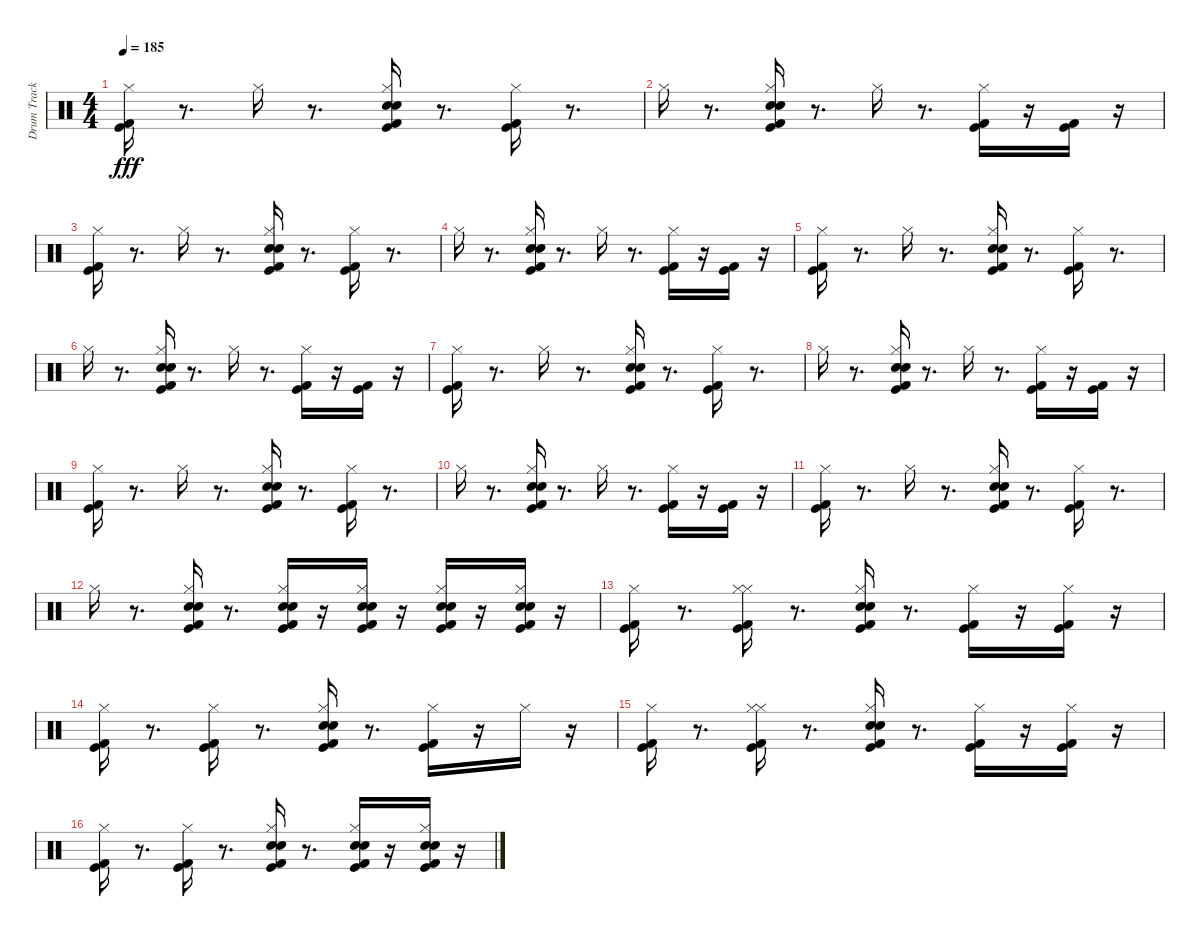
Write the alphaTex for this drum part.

\track ("Drum Track" "Drum Track") {instrument percussion}
\staff {score}
\articulation defaults
\ts (4 4)
\tempo 185
\clef neutral
\ks c
("Kick (hit)" "Kick (hit) 2" "Hi-Hat (closed)").16{dy fff} r.8{d} "Hi-Hat (closed)".16 r.8{d} ("Snare (hit) 2" "Electric Snare (hit)" "Kick (hit) 2" "Kick (hit)" "Hi-Hat (closed)").16 r.8{d} ("Kick (hit)" "Kick (hit) 2" "Hi-Hat (closed)").16 r.8{d} |
"Hi-Hat (closed)".16 r.8{d} ("Hi-Hat (closed)" "Kick (hit)" "Kick (hit) 2" "Electric Snare (hit)" "Snare (hit) 2").16 r.8{d} "Hi-Hat (closed)".16 r.8{d} ("Hi-Hat (closed)" "Kick (hit)" "Kick (hit) 2").16 r.16 ("Kick (hit) 2" "Kick (hit)").16 r.16 |
("Kick (hit)" "Kick (hit) 2" "Hi-Hat (closed)").16 r.8{d} "Hi-Hat (closed)".16 r.8{d} ("Snare (hit) 2" "Electric Snare (hit)" "Kick (hit) 2" "Kick (hit)" "Hi-Hat (closed)").16 r.8{d} ("Kick (hit)" "Kick (hit) 2" "Hi-Hat (closed)").16 r.8{d} |
"Hi-Hat (closed)".16 r.8{d} ("Hi-Hat (closed)" "Kick (hit)" "Kick (hit) 2" "Electric Snare (hit)" "Snare (hit) 2").16 r.8{d} "Hi-Hat (closed)".16 r.8{d} ("Hi-Hat (closed)" "Kick (hit)" "Kick (hit) 2").16 r.16 ("Kick (hit) 2" "Kick (hit)").16 r.16 |
("Hi-Hat (closed)" "Kick (hit) 2" "Kick (hit)").16 r.8{d} "Hi-Hat (closed)".16 r.8{d} ("Snare (hit) 2" "Electric Snare (hit)" "Kick (hit) 2" "Kick (hit)" "Hi-Hat (closed)").16 r.8{d} ("Kick (hit)" "Kick (hit) 2" "Hi-Hat (closed)").16 r.8{d} |
"Hi-Hat (closed)".16 r.8{d} ("Hi-Hat (closed)" "Kick (hit)" "Kick (hit) 2" "Electric Snare (hit)" "Snare (hit) 2").16 r.8{d} "Hi-Hat (closed)".16 r.8{d} ("Hi-Hat (closed)" "Kick (hit)" "Kick (hit) 2").16 r.16 ("Kick (hit) 2" "Kick (hit)").16 r.16 |
("Hi-Hat (closed)" "Kick (hit) 2" "Kick (hit)").16 r.8{d} "Hi-Hat (closed)".16 r.8{d} ("Snare (hit) 2" "Electric Snare (hit)" "Kick (hit) 2" "Kick (hit)" "Hi-Hat (closed)").16 r.8{d} ("Kick (hit)" "Kick (hit) 2" "Hi-Hat (closed)").16 r.8{d} |
"Hi-Hat (closed)".16 r.8{d} ("Hi-Hat (closed)" "Kick (hit)" "Kick (hit) 2" "Electric Snare (hit)" "Snare (hit) 2").16 r.8{d} "Hi-Hat (closed)".16 r.8{d} ("Hi-Hat (closed)" "Kick (hit)" "Kick (hit) 2").16 r.16 ("Kick (hit) 2" "Kick (hit)").16 r.16 |
("Hi-Hat (closed)" "Kick (hit) 2" "Kick (hit)").16 r.8{d} "Hi-Hat (closed)".16 r.8{d} ("Snare (hit) 2" "Electric Snare (hit)" "Kick (hit) 2" "Kick (hit)" "Hi-Hat (closed)").16 r.8{d} ("Kick (hit)" "Kick (hit) 2" "Hi-Hat (closed)").16 r.8{d} |
"Hi-Hat (closed)".16 r.8{d} ("Hi-Hat (closed)" "Kick (hit)" "Kick (hit) 2" "Electric Snare (hit)" "Snare (hit) 2").16 r.8{d} "Hi-Hat (closed)".16 r.8{d} ("Hi-Hat (closed)" "Kick (hit)" "Kick (hit) 2").16 r.16 ("Kick (hit) 2" "Kick (hit)").16 r.16 |
("Hi-Hat (closed)" "Kick (hit) 2" "Kick (hit)").16 r.8{d} "Hi-Hat (closed)".16 r.8{d} ("Snare (hit) 2" "Electric Snare (hit)" "Kick (hit) 2" "Kick (hit)" "Hi-Hat (closed)").16 r.8{d} ("Kick (hit)" "Kick (hit) 2" "Hi-Hat (closed)").16 r.8{d} |
"Hi-Hat (closed)".16 r.8{d} ("Hi-Hat (closed)" "Kick (hit)" "Kick (hit) 2" "Electric Snare (hit)" "Snare (hit) 2").16 r.8{d} ("Hi-Hat (closed)" "Electric Snare (hit)" "Snare (hit) 2" "Kick (hit) 2" "Kick (hit)").16 r.16 ("Electric Snare (hit)" "Snare (hit) 2" "Kick (hit) 2" "Kick (hit)" "Hi-Hat (closed)").16 r.16 ("Hi-Hat (closed)" "Snare (hit) 2" "Electric Snare (hit)" "Kick (hit)" "Kick (hit) 2").16 r.16 ("Kick (hit) 2" "Kick (hit)" "Electric Snare (hit)" "Snare (hit) 2" "Hi-Hat (closed)").16 r.16 |
("Hi-Hat (closed)" "Kick (hit) 2" "Kick (hit)").16 r.8{d} ("Hi-Hat (closed)" "Hi-Hat (closed)" "Kick (hit) 2" "Kick (hit)").16 r.8{d} ("Snare (hit) 2" "Electric Snare (hit)" "Kick (hit) 2" "Kick (hit)" "Hi-Hat (closed)").16 r.8{d} ("Kick (hit)" "Kick (hit) 2" "Hi-Hat (closed)").16 r.16 ("Kick (hit) 2" "Kick (hit)" "Hi-Hat (closed)").16 r.16 |
("Hi-Hat (closed)" "Kick (hit) 2" "Kick (hit)").16 r.8{d} ("Hi-Hat (closed)" "Kick (hit)" "Kick (hit) 2").16 r.8{d} ("Hi-Hat (closed)" "Snare (hit) 2" "Electric Snare (hit)" "Kick (hit) 2" "Kick (hit)").16 r.8{d} ("Hi-Hat (closed)" "Kick (hit)" "Kick (hit) 2").16 r.16 "Hi-Hat (closed)".16 r.16 |
("Kick (hit)" "Kick (hit) 2" "Hi-Hat (closed)").16 r.8{d} ("Hi-Hat (closed)" "Hi-Hat (closed)" "Kick (hit) 2" "Kick (hit)").16 r.8{d} ("Snare (hit) 2" "Electric Snare (hit)" "Kick (hit) 2" "Kick (hit)" "Hi-Hat (closed)").16 r.8{d} ("Kick (hit)" "Kick (hit) 2" "Hi-Hat (closed)").16 r.16 ("Kick (hit) 2" "Kick (hit)" "Hi-Hat (closed)").16 r.16 |
("Hi-Hat (closed)" "Kick (hit) 2" "Kick (hit)").16 r.8{d} ("Hi-Hat (closed)" "Kick (hit)" "Kick (hit) 2").16 r.8{d} ("Hi-Hat (closed)" "Snare (hit) 2" "Electric Snare (hit)" "Kick (hit) 2" "Kick (hit)").16 r.8{d} ("Hi-Hat (closed)" "Snare (hit) 2" "Electric Snare (hit)" "Kick (hit)" "Kick (hit) 2").16 r.16 ("Hi-Hat (closed)" "Electric Snare (hit)" "Snare (hit) 2" "Kick (hit) 2" "Kick (hit)").16 r.16
